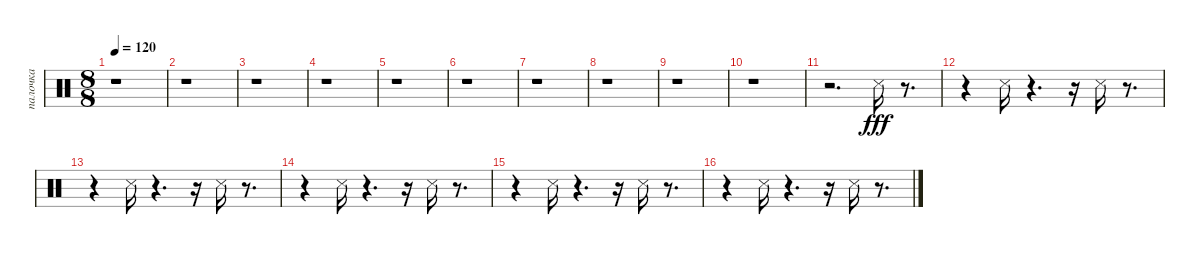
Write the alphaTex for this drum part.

\track ("палочка" "палочка") {instrument percussion}
\staff {score}
\articulation defaults
\ts (8 8)
\tempo 120
\clef neutral
\ks c
r.1{dy fff} |
r.1 |
r.1 |
r.1 |
r.1 |
r.1 |
r.1 |
r.1 |
r.1 |
r.1 |
r.2{d} "Snare (side stick) 3".16 r.8{d} |
r.4 "Snare (side stick) 3".16 r.4{d} r.16 "Snare (side stick) 3".16 r.8{d} |
r.4 "Snare (side stick) 3".16 r.4{d} r.16 "Snare (side stick) 3".16 r.8{d} |
r.4 "Snare (side stick) 3".16 r.4{d} r.16 "Snare (side stick) 3".16 r.8{d} |
r.4 "Snare (side stick) 3".16 r.4{d} r.16 "Snare (side stick) 3".16 r.8{d} |
r.4 "Snare (side stick) 3".16 r.4{d} r.16 "Snare (side stick) 3".16 r.8{d}
